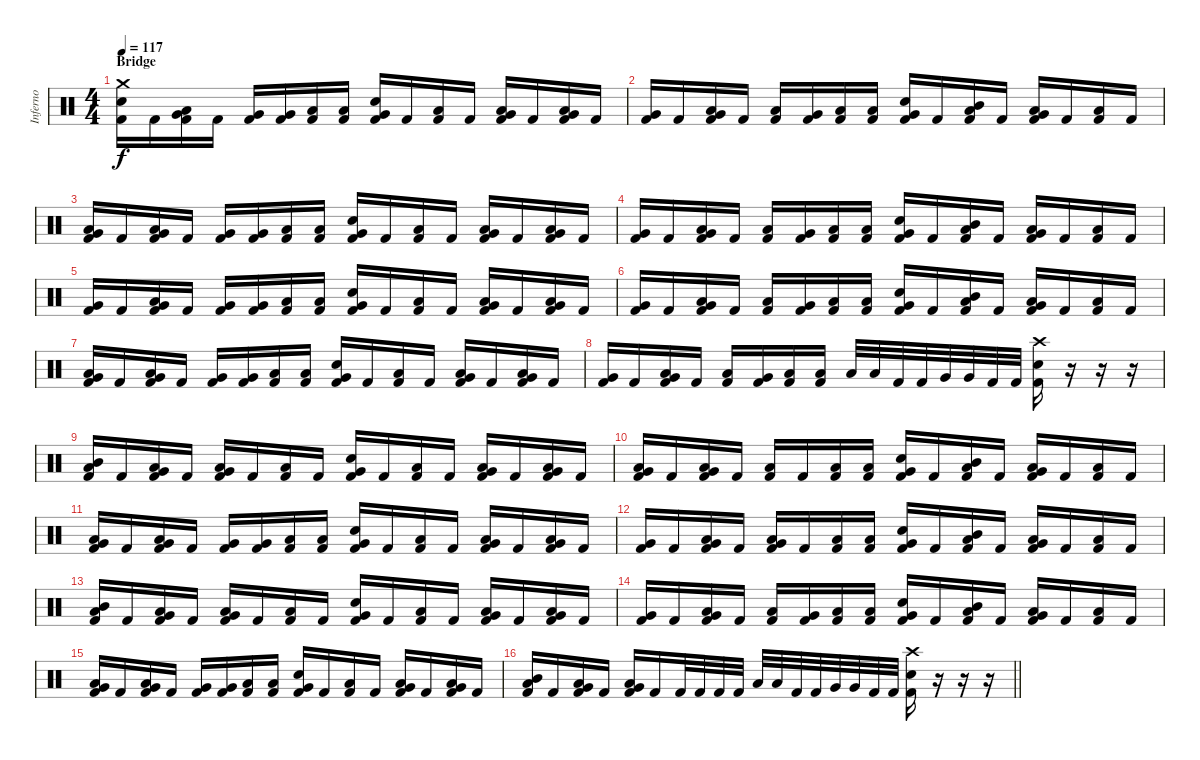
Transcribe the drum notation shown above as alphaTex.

\track ("Inferno" "Inferno") {instrument percussion}
\staff {score}
\articulation defaults
\ts (4 4)
\section ("" "Bridge ")
\tempo 117
\clef neutral
\ks c
("Crash medium (hit)" "Snare (hit) 2" "Kick (hit) 2").16{dy f} "Kick (hit) 2".16 ("Low Tom (hit)" "Very Low Tom (hit)" "Kick (hit) 2").16 "Kick (hit) 2".16 ("Very Low Tom (hit)" "Kick (hit) 2").16 ("Very Low Tom (hit)" "Kick (hit) 2").16 ("Low Floor Tom (hit)" "Kick (hit) 2").16 ("Low Floor Tom (hit)" "Kick (hit) 2").16 ("Very Low Tom (hit)" "Snare (hit) 2" "Kick (hit) 2").16 "Kick (hit) 2".16 ("Low Floor Tom (hit)" "Kick (hit) 2").16 "Kick (hit) 2".16 ("Low Tom (hit)" "Very Low Tom (hit)" "Kick (hit) 2").16 "Kick (hit) 2".16 ("Very Low Tom (hit)" "Low Floor Tom (hit)" "Kick (hit) 2").16 "Kick (hit) 2".16 |
("Very Low Tom (hit)" "Kick (hit) 2").16 "Kick (hit) 2".16 ("Very Low Tom (hit)" "Low Floor Tom (hit)" "Kick (hit) 2").16 "Kick (hit) 2".16 ("Low Tom (hit)" "Kick (hit) 2").16 ("Very Low Tom (hit)" "Kick (hit) 2").16 ("Low Floor Tom (hit)" "Kick (hit) 2").16 ("Low Floor Tom (hit)" "Kick (hit) 2").16 ("Very Low Tom (hit)" "Snare (hit) 2" "Kick (hit) 2").16 "Kick (hit) 2".16 ("Mid Tom (hit)" "Low Tom (hit)" "Kick (hit) 2").16 "Kick (hit) 2".16 ("Low Tom (hit)" "Very Low Tom (hit)" "Kick (hit) 2").16 "Kick (hit) 2".16 ("Low Floor Tom (hit)" "Kick (hit) 2").16 "Kick (hit) 2".16 |
("Very Low Tom (hit)" "Low Floor Tom (hit)" "Kick (hit) 2").16 "Kick (hit) 2".16 ("Low Tom (hit)" "Very Low Tom (hit)" "Kick (hit) 2").16 "Kick (hit) 2".16 ("Very Low Tom (hit)" "Kick (hit) 2").16 ("Very Low Tom (hit)" "Kick (hit) 2").16 ("Low Floor Tom (hit)" "Kick (hit) 2").16 ("Low Floor Tom (hit)" "Kick (hit) 2").16 ("Very Low Tom (hit)" "Snare (hit) 2" "Kick (hit) 2").16 "Kick (hit) 2".16 ("Low Floor Tom (hit)" "Kick (hit) 2").16 "Kick (hit) 2".16 ("Low Tom (hit)" "Very Low Tom (hit)" "Kick (hit) 2").16 "Kick (hit) 2".16 ("Very Low Tom (hit)" "Low Floor Tom (hit)" "Kick (hit) 2").16 "Kick (hit) 2".16 |
("Very Low Tom (hit)" "Kick (hit) 2").16 "Kick (hit) 2".16 ("Very Low Tom (hit)" "Low Floor Tom (hit)" "Kick (hit) 2").16 "Kick (hit) 2".16 ("Low Tom (hit)" "Kick (hit) 2").16 ("Very Low Tom (hit)" "Kick (hit) 2").16 ("Low Floor Tom (hit)" "Kick (hit) 2").16 ("Low Floor Tom (hit)" "Kick (hit) 2").16 ("Very Low Tom (hit)" "Snare (hit) 2" "Kick (hit) 2").16 "Kick (hit) 2".16 ("Mid Tom (hit)" "Low Tom (hit)" "Kick (hit) 2").16 "Kick (hit) 2".16 ("Low Tom (hit)" "Very Low Tom (hit)" "Kick (hit) 2").16 "Kick (hit) 2".16 ("Low Floor Tom (hit)" "Kick (hit) 2").16 "Kick (hit) 2".16 |
("Very Low Tom (hit)" "Kick (hit) 2").16 "Kick (hit) 2".16 ("Low Tom (hit)" "Very Low Tom (hit)" "Kick (hit) 2").16 "Kick (hit) 2".16 ("Very Low Tom (hit)" "Kick (hit) 2").16 ("Very Low Tom (hit)" "Kick (hit) 2").16 ("Low Floor Tom (hit)" "Kick (hit) 2").16 ("Low Floor Tom (hit)" "Kick (hit) 2").16 ("Very Low Tom (hit)" "Snare (hit) 2" "Kick (hit) 2").16 "Kick (hit) 2".16 ("Low Floor Tom (hit)" "Kick (hit) 2").16 "Kick (hit) 2".16 ("Low Tom (hit)" "Very Low Tom (hit)" "Kick (hit) 2").16 "Kick (hit) 2".16 ("Very Low Tom (hit)" "Low Floor Tom (hit)" "Kick (hit) 2").16 "Kick (hit) 2".16 |
("Very Low Tom (hit)" "Kick (hit) 2").16 "Kick (hit) 2".16 ("Very Low Tom (hit)" "Low Floor Tom (hit)" "Kick (hit) 2").16 "Kick (hit) 2".16 ("Low Tom (hit)" "Kick (hit) 2").16 ("Very Low Tom (hit)" "Kick (hit) 2").16 ("Low Floor Tom (hit)" "Kick (hit) 2").16 ("Low Floor Tom (hit)" "Kick (hit) 2").16 ("Very Low Tom (hit)" "Snare (hit) 2" "Kick (hit) 2").16 "Kick (hit) 2".16 ("Mid Tom (hit)" "Low Tom (hit)" "Kick (hit) 2").16 "Kick (hit) 2".16 ("Low Tom (hit)" "Very Low Tom (hit)" "Kick (hit) 2").16 "Kick (hit) 2".16 ("Low Floor Tom (hit)" "Kick (hit) 2").16 "Kick (hit) 2".16 |
("Very Low Tom (hit)" "Low Floor Tom (hit)" "Kick (hit) 2").16 "Kick (hit) 2".16 ("Low Tom (hit)" "Very Low Tom (hit)" "Kick (hit) 2").16 "Kick (hit) 2".16 ("Very Low Tom (hit)" "Kick (hit) 2").16 ("Very Low Tom (hit)" "Kick (hit) 2").16 ("Low Floor Tom (hit)" "Kick (hit) 2").16 ("Low Floor Tom (hit)" "Kick (hit) 2").16 ("Very Low Tom (hit)" "Snare (hit) 2" "Kick (hit) 2").16 "Kick (hit) 2".16 ("Low Floor Tom (hit)" "Kick (hit) 2").16 "Kick (hit) 2".16 ("Low Tom (hit)" "Very Low Tom (hit)" "Kick (hit) 2").16 "Kick (hit) 2".16 ("Very Low Tom (hit)" "Low Floor Tom (hit)" "Kick (hit) 2").16 "Kick (hit) 2".16 |
("Very Low Tom (hit)" "Kick (hit) 2").16 "Kick (hit) 2".16 ("Very Low Tom (hit)" "Low Floor Tom (hit)" "Kick (hit) 2").16 "Kick (hit) 2".16 ("Low Tom (hit)" "Kick (hit) 2").16 ("Very Low Tom (hit)" "Kick (hit) 2").16 ("Low Floor Tom (hit)" "Kick (hit) 2").16 ("Low Floor Tom (hit)" "Kick (hit) 2").16 "Low Tom (hit)".32 "Low Tom (hit)".32 "Kick (hit) 2".32 "Kick (hit) 2".32 "Very Low Tom (hit)".32 "Very Low Tom (hit)".32 "Kick (hit) 2".32 "Kick (hit) 2".32 ("Crash high (hit)" "Snare (hit) 2" "Kick (hit) 2").16 r.16 r.16 r.16 |
("Mid Tom (hit)" "Low Tom (hit)" "Kick (hit) 2").16 "Kick (hit) 2".16 ("Low Tom (hit)" "Very Low Tom (hit)" "Kick (hit) 2").16 "Kick (hit) 2".16 ("Very Low Tom (hit)" "Low Floor Tom (hit)" "Kick (hit) 2").16 "Kick (hit) 2".16 ("Low Floor Tom (hit)" "Kick (hit) 2").16 "Kick (hit) 2".16 ("Very Low Tom (hit)" "Snare (hit) 2" "Kick (hit) 2").16 "Kick (hit) 2".16 ("Low Floor Tom (hit)" "Kick (hit) 2").16 "Kick (hit) 2".16 ("Low Tom (hit)" "Very Low Tom (hit)" "Kick (hit) 2").16 "Kick (hit) 2".16 ("Very Low Tom (hit)" "Low Floor Tom (hit)" "Kick (hit) 2").16 "Kick (hit) 2".16 |
("Low Tom (hit)" "Very Low Tom (hit)" "Kick (hit) 2").16 "Kick (hit) 2".16 ("Very Low Tom (hit)" "Low Floor Tom (hit)" "Kick (hit) 2").16 "Kick (hit) 2".16 ("Low Floor Tom (hit)" "Kick (hit) 2").16 "Kick (hit) 2".16 ("Low Floor Tom (hit)" "Kick (hit) 2").16 ("Low Floor Tom (hit)" "Kick (hit) 2").16 ("Very Low Tom (hit)" "Snare (hit) 2" "Kick (hit) 2").16 "Kick (hit) 2".16 ("Mid Tom (hit)" "Low Tom (hit)" "Kick (hit) 2").16 "Kick (hit) 2".16 ("Low Tom (hit)" "Very Low Tom (hit)" "Kick (hit) 2").16 "Kick (hit) 2".16 ("Low Floor Tom (hit)" "Kick (hit) 2").16 "Kick (hit) 2".16 |
("Very Low Tom (hit)" "Low Floor Tom (hit)" "Kick (hit) 2").16 "Kick (hit) 2".16 ("Low Tom (hit)" "Very Low Tom (hit)" "Kick (hit) 2").16 "Kick (hit) 2".16 ("Very Low Tom (hit)" "Kick (hit) 2").16 ("Very Low Tom (hit)" "Kick (hit) 2").16 ("Low Floor Tom (hit)" "Kick (hit) 2").16 ("Low Floor Tom (hit)" "Kick (hit) 2").16 ("Very Low Tom (hit)" "Snare (hit) 2" "Kick (hit) 2").16 "Kick (hit) 2".16 ("Low Floor Tom (hit)" "Kick (hit) 2").16 "Kick (hit) 2".16 ("Low Tom (hit)" "Very Low Tom (hit)" "Kick (hit) 2").16 "Kick (hit) 2".16 ("Very Low Tom (hit)" "Low Floor Tom (hit)" "Kick (hit) 2").16 "Kick (hit) 2".16 |
("Very Low Tom (hit)" "Kick (hit) 2").16 "Kick (hit) 2".16 ("Very Low Tom (hit)" "Low Floor Tom (hit)" "Kick (hit) 2").16 "Kick (hit) 2".16 ("Low Tom (hit)" "Very Low Tom (hit)" "Kick (hit) 2").16 "Kick (hit) 2".16 ("Low Floor Tom (hit)" "Kick (hit) 2").16 ("Low Floor Tom (hit)" "Kick (hit) 2").16 ("Very Low Tom (hit)" "Snare (hit) 2" "Kick (hit) 2").16 "Kick (hit) 2".16 ("Mid Tom (hit)" "Low Tom (hit)" "Kick (hit) 2").16 "Kick (hit) 2".16 ("Low Tom (hit)" "Very Low Tom (hit)" "Kick (hit) 2").16 "Kick (hit) 2".16 ("Low Floor Tom (hit)" "Kick (hit) 2").16 "Kick (hit) 2".16 |
("Mid Tom (hit)" "Low Tom (hit)" "Kick (hit) 2").16 "Kick (hit) 2".16 ("Low Tom (hit)" "Very Low Tom (hit)" "Kick (hit) 2").16 "Kick (hit) 2".16 ("Very Low Tom (hit)" "Low Floor Tom (hit)" "Kick (hit) 2").16 "Kick (hit) 2".16 ("Low Floor Tom (hit)" "Kick (hit) 2").16 "Kick (hit) 2".16 ("Very Low Tom (hit)" "Snare (hit) 2" "Kick (hit) 2").16 "Kick (hit) 2".16 ("Low Floor Tom (hit)" "Kick (hit) 2").16 "Kick (hit) 2".16 ("Low Tom (hit)" "Very Low Tom (hit)" "Kick (hit) 2").16 "Kick (hit) 2".16 ("Very Low Tom (hit)" "Low Floor Tom (hit)" "Kick (hit) 2").16 "Kick (hit) 2".16 |
("Very Low Tom (hit)" "Kick (hit) 2").16 "Kick (hit) 2".16 ("Very Low Tom (hit)" "Low Floor Tom (hit)" "Kick (hit) 2").16 "Kick (hit) 2".16 ("Low Tom (hit)" "Kick (hit) 2").16 ("Very Low Tom (hit)" "Kick (hit) 2").16 ("Low Floor Tom (hit)" "Kick (hit) 2").16 ("Low Floor Tom (hit)" "Kick (hit) 2").16 ("Very Low Tom (hit)" "Snare (hit) 2" "Kick (hit) 2").16 "Kick (hit) 2".16 ("Mid Tom (hit)" "Low Tom (hit)" "Kick (hit) 2").16 "Kick (hit) 2".16 ("Low Tom (hit)" "Very Low Tom (hit)" "Kick (hit) 2").16 "Kick (hit) 2".16 ("Low Floor Tom (hit)" "Kick (hit) 2").16 "Kick (hit) 2".16 |
("Very Low Tom (hit)" "Low Floor Tom (hit)" "Kick (hit) 2").16 "Kick (hit) 2".16 ("Low Tom (hit)" "Very Low Tom (hit)" "Kick (hit) 2").16 "Kick (hit) 2".16 ("Very Low Tom (hit)" "Kick (hit) 2").16 ("Very Low Tom (hit)" "Kick (hit) 2").16 ("Low Floor Tom (hit)" "Kick (hit) 2").16 ("Low Floor Tom (hit)" "Kick (hit) 2").16 ("Very Low Tom (hit)" "Snare (hit) 2" "Kick (hit) 2").16 "Kick (hit) 2".16 ("Low Floor Tom (hit)" "Kick (hit) 2").16 "Kick (hit) 2".16 ("Low Tom (hit)" "Very Low Tom (hit)" "Kick (hit) 2").16 "Kick (hit) 2".16 ("Very Low Tom (hit)" "Low Floor Tom (hit)" "Kick (hit) 2").16 "Kick (hit) 2".16 |
\barLineRight lightlight
("Mid Tom (hit)" "Low Tom (hit)" "Kick (hit) 2").16 "Kick (hit) 2".16 ("Low Tom (hit)" "Very Low Tom (hit)" "Kick (hit) 2").16 "Kick (hit) 2".16 ("Very Low Tom (hit)" "Low Floor Tom (hit)" "Kick (hit) 2").16 "Kick (hit) 2".16 "Kick (hit) 2".32 "Kick (hit) 2".32 "Kick (hit) 2".32 "Kick (hit) 2".32 "Low Tom (hit)".32 "Low Tom (hit)".32 "Kick (hit) 2".32 "Kick (hit) 2".32 "Very Low Tom (hit)".32 "Very Low Tom (hit)".32 "Kick (hit) 2".32 "Kick (hit) 2".32 ("Crash high (hit)" "Snare (hit) 2" "Kick (hit) 2").16 r.16 r.16 r.16
